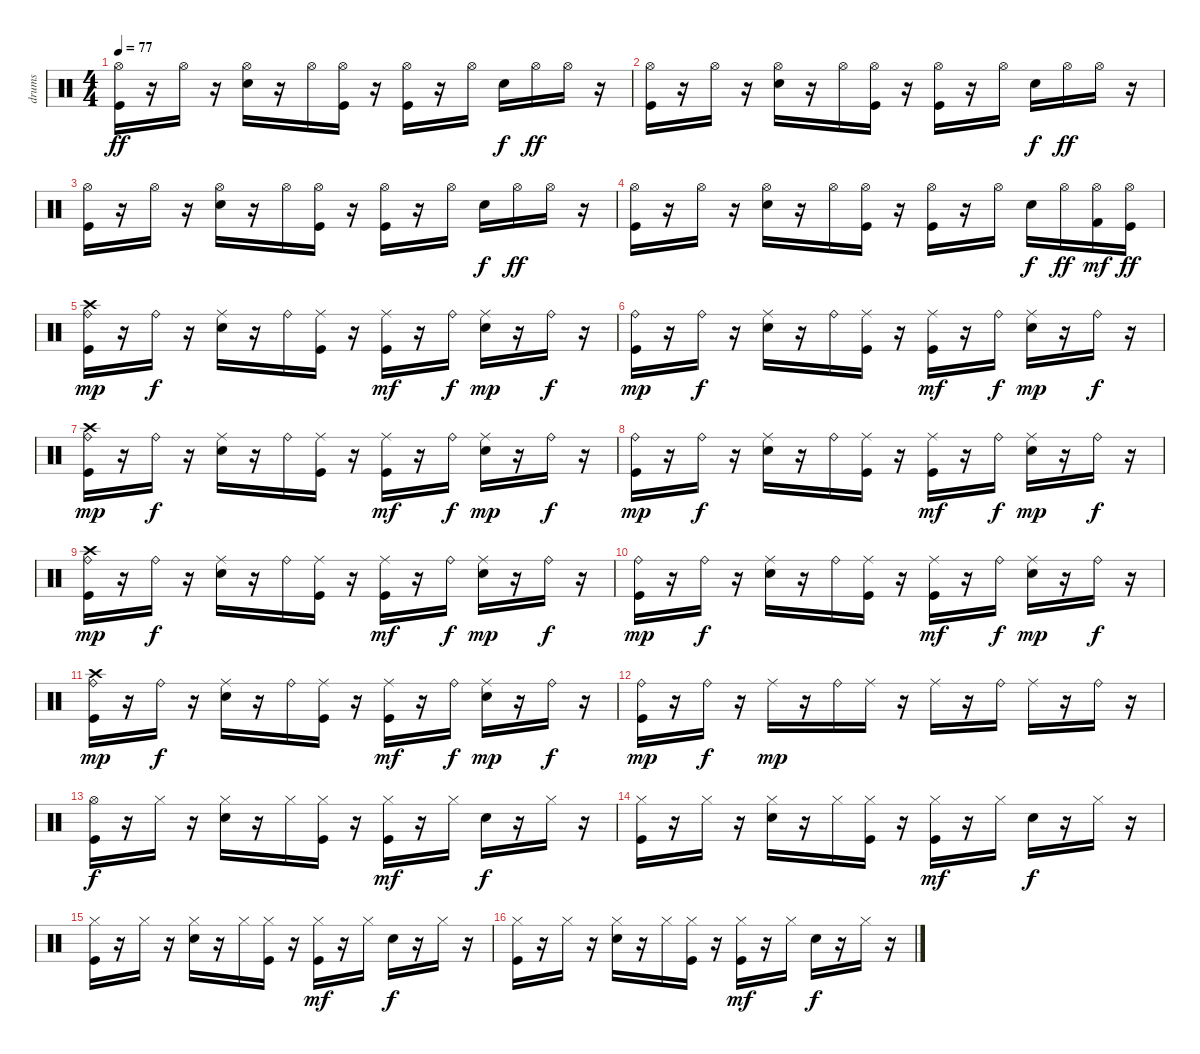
\track ("drums" "drums") {instrument percussion}
\staff {score}
\articulation defaults
\ts (4 4)
\tempo 77
\clef neutral
\ks c
("Kick (hit)" "Hi-Hat (open)").16{dy ff} r.16 "Hi-Hat (open)".16 r.16 ("Snare (hit) 2" "Hi-Hat (open)").16 r.16 "Hi-Hat (open)".16 ("Kick (hit)" "Hi-Hat (open)").16 r.16 ("Kick (hit)" "Hi-Hat (open)").16 r.16 "Hi-Hat (open)".16 "Snare (hit) 2".16{dy f} "Hi-Hat (open)".16{dy ff} "Hi-Hat (open)".16 r.16 |
("Kick (hit)" "Hi-Hat (open)").16 r.16 "Hi-Hat (open)".16 r.16 ("Snare (hit) 2" "Hi-Hat (open)").16 r.16 "Hi-Hat (open)".16 ("Kick (hit)" "Hi-Hat (open)").16 r.16 ("Kick (hit)" "Hi-Hat (open)").16 r.16 "Hi-Hat (open)".16 "Snare (hit) 2".16{dy f} "Hi-Hat (open)".16{dy ff} "Hi-Hat (open)".16 r.16 |
("Kick (hit)" "Hi-Hat (open)").16 r.16 "Hi-Hat (open)".16 r.16 ("Snare (hit) 2" "Hi-Hat (open)").16 r.16 "Hi-Hat (open)".16 ("Kick (hit)" "Hi-Hat (open)").16 r.16 ("Kick (hit)" "Hi-Hat (open)").16 r.16 "Hi-Hat (open)".16 "Snare (hit) 2".16{dy f} "Hi-Hat (open)".16{dy ff} "Hi-Hat (open)".16 r.16 |
("Kick (hit)" "Hi-Hat (open)").16 r.16 "Hi-Hat (open)".16 r.16 ("Snare (hit) 2" "Hi-Hat (open)").16 r.16 "Hi-Hat (open)".16 ("Kick (hit)" "Hi-Hat (open)").16 r.16 ("Kick (hit)" "Hi-Hat (open)").16 r.16 "Hi-Hat (open)".16 "Snare (hit) 2".16{dy f} "Hi-Hat (open)".16{dy ff} ("Hi-Hat (open)" "Kick (hit) 2").16{dy mf} ("Hi-Hat (open)" "Kick (hit)").16{dy ff} |
("Crash high (hit)" "Kick (hit)" "Ride (bell)").16{dy mp} r.16 "Ride (bell)".16{dy f} r.16 ("Snare (hit) 2" "Ride (middle)").16 r.16 "Ride (bell)".16 ("Kick (hit)" "Ride (middle)").16 r.16 ("Kick (hit)" "Ride (middle)").16{dy mf} r.16 "Ride (bell)".16{dy f} ("Snare (hit) 2" "Ride (middle)").16{dy mp} r.16 "Ride (bell)".16{dy f} r.16 |
("Kick (hit)" "Ride (bell)").16{dy mp} r.16 "Ride (bell)".16{dy f} r.16 ("Snare (hit) 2" "Ride (middle)").16 r.16 "Ride (bell)".16 ("Kick (hit)" "Ride (middle)").16 r.16 ("Kick (hit)" "Ride (middle)").16{dy mf} r.16 "Ride (bell)".16{dy f} ("Snare (hit) 2" "Ride (middle)").16{dy mp} r.16 "Ride (bell)".16{dy f} r.16 |
("Crash high (hit)" "Kick (hit)" "Ride (bell)").16{dy mp} r.16 "Ride (bell)".16{dy f} r.16 ("Snare (hit) 2" "Ride (middle)").16 r.16 "Ride (bell)".16 ("Kick (hit)" "Ride (middle)").16 r.16 ("Kick (hit)" "Ride (middle)").16{dy mf} r.16 "Ride (bell)".16{dy f} ("Snare (hit) 2" "Ride (middle)").16{dy mp} r.16 "Ride (bell)".16{dy f} r.16 |
("Kick (hit)" "Ride (bell)").16{dy mp} r.16 "Ride (bell)".16{dy f} r.16 ("Snare (hit) 2" "Ride (middle)").16 r.16 "Ride (bell)".16 ("Kick (hit)" "Ride (middle)").16 r.16 ("Kick (hit)" "Ride (middle)").16{dy mf} r.16 "Ride (bell)".16{dy f} ("Snare (hit) 2" "Ride (middle)").16{dy mp} r.16 "Ride (bell)".16{dy f} r.16 |
("Crash high (hit)" "Kick (hit)" "Ride (bell)").16{dy mp} r.16 "Ride (bell)".16{dy f} r.16 ("Snare (hit) 2" "Ride (middle)").16 r.16 "Ride (bell)".16 ("Kick (hit)" "Ride (middle)").16 r.16 ("Kick (hit)" "Ride (middle)").16{dy mf} r.16 "Ride (bell)".16{dy f} ("Snare (hit) 2" "Ride (middle)").16{dy mp} r.16 "Ride (bell)".16{dy f} r.16 |
("Kick (hit)" "Ride (bell)").16{dy mp} r.16 "Ride (bell)".16{dy f} r.16 ("Snare (hit) 2" "Ride (middle)").16 r.16 "Ride (bell)".16 ("Kick (hit)" "Ride (middle)").16 r.16 ("Kick (hit)" "Ride (middle)").16{dy mf} r.16 "Ride (bell)".16{dy f} ("Snare (hit) 2" "Ride (middle)").16{dy mp} r.16 "Ride (bell)".16{dy f} r.16 |
("Crash high (hit)" "Kick (hit)" "Ride (bell)").16{dy mp} r.16 "Ride (bell)".16{dy f} r.16 ("Snare (hit) 2" "Ride (middle)").16 r.16 "Ride (bell)".16 ("Kick (hit)" "Ride (middle)").16 r.16 ("Kick (hit)" "Ride (middle)").16{dy mf} r.16 "Ride (bell)".16{dy f} ("Snare (hit) 2" "Ride (middle)").16{dy mp} r.16 "Ride (bell)".16{dy f} r.16 |
("Kick (hit)" "Ride (bell)").16{dy mp} r.16 "Ride (bell)".16{dy f} r.16 "Ride (middle)".16{dy mp} r.16 "Ride (bell)".16 "Ride (middle)".16 r.16 "Ride (middle)".16 r.16 "Ride (bell)".16 "Ride (middle)".16 r.16 "Ride (bell)".16 r.16 |
("Hi-Hat (open)" "Kick (hit)").16{dy f} r.16 "Hi-Hat (closed)".16 r.16 ("Snare (hit) 2" "Hi-Hat (closed)").16 r.16 "Hi-Hat (closed)".16 ("Kick (hit)" "Hi-Hat (closed)").16 r.16 ("Kick (hit)" "Hi-Hat (closed)").16{dy mf} r.16 "Hi-Hat (closed)".16 "Snare (hit) 2".16{dy f} r.16 "Hi-Hat (closed)".16 r.16 |
("Hi-Hat (closed)" "Kick (hit)").16 r.16 "Hi-Hat (closed)".16 r.16 ("Snare (hit) 2" "Hi-Hat (closed)").16 r.16 "Hi-Hat (closed)".16 ("Kick (hit)" "Hi-Hat (closed)").16 r.16 ("Kick (hit)" "Hi-Hat (closed)").16{dy mf} r.16 "Hi-Hat (closed)".16 "Snare (hit) 2".16{dy f} r.16 "Hi-Hat (closed)".16 r.16 |
("Hi-Hat (closed)" "Kick (hit)").16 r.16 "Hi-Hat (closed)".16 r.16 ("Snare (hit) 2" "Hi-Hat (closed)").16 r.16 "Hi-Hat (closed)".16 ("Kick (hit)" "Hi-Hat (closed)").16 r.16 ("Kick (hit)" "Hi-Hat (closed)").16{dy mf} r.16 "Hi-Hat (closed)".16 "Snare (hit) 2".16{dy f} r.16 "Hi-Hat (closed)".16 r.16 |
("Hi-Hat (closed)" "Kick (hit)").16 r.16 "Hi-Hat (closed)".16 r.16 ("Snare (hit) 2" "Hi-Hat (closed)").16 r.16 "Hi-Hat (closed)".16 ("Kick (hit)" "Hi-Hat (closed)").16 r.16 ("Kick (hit)" "Hi-Hat (closed)").16{dy mf} r.16 "Hi-Hat (closed)".16 "Snare (hit) 2".16{dy f} r.16 "Hi-Hat (closed)".16 r.16
